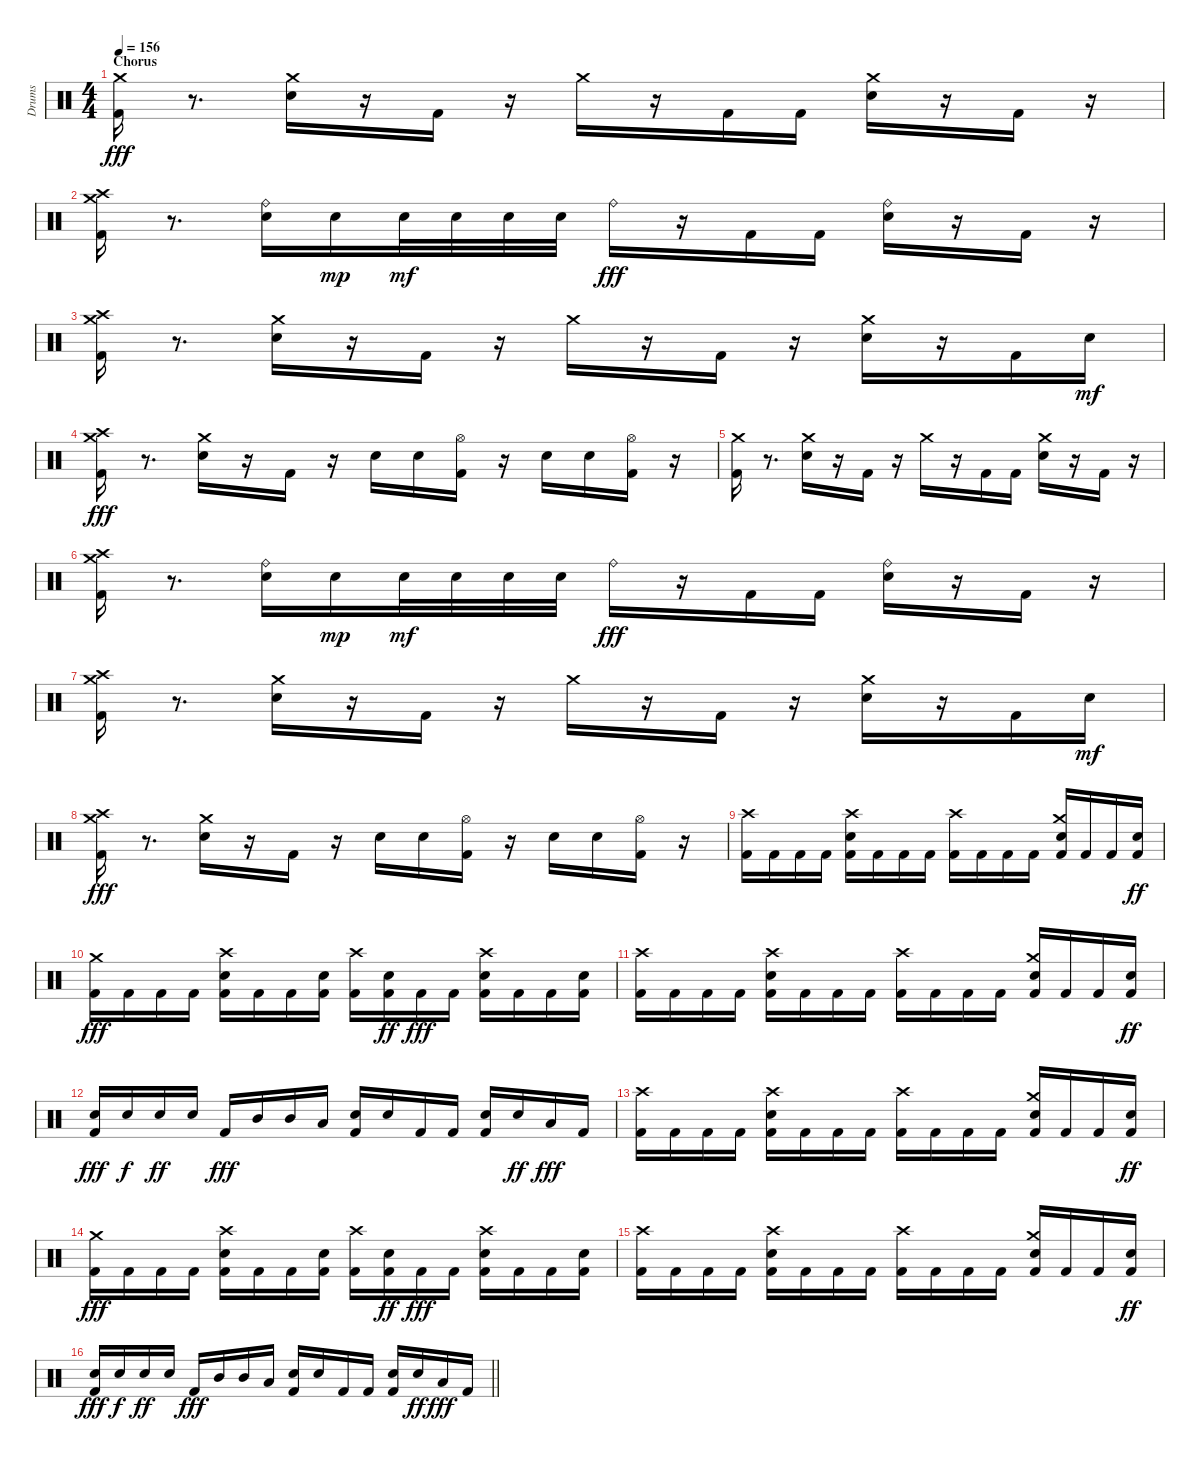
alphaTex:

\track ("Drums" "Drums") {instrument percussion}
\staff {score}
\articulation defaults
\ts (4 4)
\section ("" "Chorus")
\tempo 156
\clef neutral
\ks c
("Kick (hit) 2" "Crash medium (hit)").16{dy fff} r.8{d} ("Snare (hit) 2" "Crash medium (hit)").16 r.16 "Kick (hit) 2".16 r.16 "Crash medium (hit)".16 r.16 "Kick (hit) 2".16 "Kick (hit) 2".16 ("Snare (hit) 2" "Crash medium (hit)").16 r.16 "Kick (hit) 2".16 r.16 |
("Kick (hit) 2" "Crash high (hit)" "Crash medium (hit)").16 r.8{d} ("Snare (hit) 2" "Ride (bell)").16 "Snare (hit) 2".16{dy mp} "Snare (hit) 2".32{dy mf} "Snare (hit) 2".32 "Snare (hit) 2".32 "Snare (hit) 2".32 "Ride (bell)".16{dy fff} r.16 "Kick (hit) 2".16 "Kick (hit) 2".16 ("Snare (hit) 2" "Ride (bell)").16 r.16 "Kick (hit) 2".16 r.16 |
("Kick (hit) 2" "Crash high (hit)" "Crash medium (hit)").16 r.8{d} ("Snare (hit) 2" "Crash medium (hit)").16 r.16 "Kick (hit) 2".16 r.16 "Crash medium (hit)".16 r.16 "Kick (hit) 2".16 r.16 ("Snare (hit) 2" "Crash medium (hit)").16 r.16 "Kick (hit) 2".16 "Snare (hit) 2".16{dy mf} |
("Kick (hit) 2" "Crash high (hit)" "Crash medium (hit)").16{dy fff} r.8{d} ("Snare (hit) 2" "Crash medium (hit)").16 r.16 "Kick (hit) 2".16 r.16 "Snare (hit) 2".16 "Snare (hit) 2".16 ("Kick (hit) 2" "Hi-Hat (open)").16 r.16 "Snare (hit) 2".16 "Snare (hit) 2".16 ("Kick (hit) 2" "Hi-Hat (open)").16 r.16 |
("Kick (hit) 2" "Crash medium (hit)").16 r.8{d} ("Snare (hit) 2" "Crash medium (hit)").16 r.16 "Kick (hit) 2".16 r.16 "Crash medium (hit)".16 r.16 "Kick (hit) 2".16 "Kick (hit) 2".16 ("Snare (hit) 2" "Crash medium (hit)").16 r.16 "Kick (hit) 2".16 r.16 |
("Kick (hit) 2" "Crash high (hit)" "Crash medium (hit)").16 r.8{d} ("Snare (hit) 2" "Ride (bell)").16 "Snare (hit) 2".16{dy mp} "Snare (hit) 2".32{dy mf} "Snare (hit) 2".32 "Snare (hit) 2".32 "Snare (hit) 2".32 "Ride (bell)".16{dy fff} r.16 "Kick (hit) 2".16 "Kick (hit) 2".16 ("Snare (hit) 2" "Ride (bell)").16 r.16 "Kick (hit) 2".16 r.16 |
("Kick (hit) 2" "Crash high (hit)" "Crash medium (hit)").16 r.8{d} ("Snare (hit) 2" "Crash medium (hit)").16 r.16 "Kick (hit) 2".16 r.16 "Crash medium (hit)".16 r.16 "Kick (hit) 2".16 r.16 ("Snare (hit) 2" "Crash medium (hit)").16 r.16 "Kick (hit) 2".16 "Snare (hit) 2".16{dy mf} |
("Kick (hit) 2" "Crash high (hit)" "Crash medium (hit)").16{dy fff} r.8{d} ("Snare (hit) 2" "Crash medium (hit)").16 r.16 "Kick (hit) 2".16 r.16 "Snare (hit) 2".16 "Snare (hit) 2".16 ("Kick (hit) 2" "Hi-Hat (open)").16 r.16 "Snare (hit) 2".16 "Snare (hit) 2".16 ("Kick (hit) 2" "Hi-Hat (open)").16 r.16 |
("Kick (hit) 2" "Crash high (hit)").16 "Kick (hit) 2".16 "Kick (hit) 2".16 "Kick (hit) 2".16 ("Kick (hit) 2" "Snare (hit) 2" "Crash high (hit)").16 "Kick (hit) 2".16 "Kick (hit) 2".16 "Kick (hit) 2".16 ("Kick (hit) 2" "Crash high (hit)").16 "Kick (hit) 2".16 "Kick (hit) 2".16 "Kick (hit) 2".16 ("Kick (hit) 2" "Snare (hit) 2" "Crash medium (hit)").16 "Kick (hit) 2".16 "Kick (hit) 2".16 ("Kick (hit) 2" "Snare (hit) 2").16{dy ff} |
("Kick (hit) 2" "Crash medium (hit)").16{dy fff} "Kick (hit) 2".16 "Kick (hit) 2".16 "Kick (hit) 2".16 ("Kick (hit) 2" "Snare (hit) 2" "Crash high (hit)").16 "Kick (hit) 2".16 "Kick (hit) 2".16 ("Kick (hit) 2" "Snare (hit) 2").16 ("Kick (hit) 2" "Crash high (hit)").16 ("Kick (hit) 2" "Snare (hit) 2").16{dy ff} "Kick (hit) 2".16{dy fff} "Kick (hit) 2".16 ("Kick (hit) 2" "Snare (hit) 2" "Crash high (hit)").16 "Kick (hit) 2".16 "Kick (hit) 2".16 ("Kick (hit) 2" "Snare (hit) 2").16 |
("Kick (hit) 2" "Crash high (hit)").16 "Kick (hit) 2".16 "Kick (hit) 2".16 "Kick (hit) 2".16 ("Kick (hit) 2" "Snare (hit) 2" "Crash high (hit)").16 "Kick (hit) 2".16 "Kick (hit) 2".16 "Kick (hit) 2".16 ("Kick (hit) 2" "Crash high (hit)").16 "Kick (hit) 2".16 "Kick (hit) 2".16 "Kick (hit) 2".16 ("Kick (hit) 2" "Snare (hit) 2" "Crash medium (hit)").16 "Kick (hit) 2".16 "Kick (hit) 2".16 ("Kick (hit) 2" "Snare (hit) 2").16{dy ff} |
("Kick (hit) 2" "Snare (hit) 2").16{dy fff} "Snare (hit) 2".16{dy f} "Snare (hit) 2".16{dy ff} "Snare (hit) 2".16 "Kick (hit) 2".16{dy fff} "Mid Tom (hit)".16 "Mid Tom (hit)".16 "Low Tom (hit)".16 ("Kick (hit) 2" "Snare (hit) 2").16 "Snare (hit) 2".16 "Kick (hit) 2".16 "Kick (hit) 2".16 ("Kick (hit) 2" "Snare (hit) 2").16 "Snare (hit) 2".16{dy ff} "Low Tom (hit)".16{dy fff} "Kick (hit) 2".16 |
("Kick (hit) 2" "Crash high (hit)").16 "Kick (hit) 2".16 "Kick (hit) 2".16 "Kick (hit) 2".16 ("Kick (hit) 2" "Snare (hit) 2" "Crash high (hit)").16 "Kick (hit) 2".16 "Kick (hit) 2".16 "Kick (hit) 2".16 ("Kick (hit) 2" "Crash high (hit)").16 "Kick (hit) 2".16 "Kick (hit) 2".16 "Kick (hit) 2".16 ("Kick (hit) 2" "Snare (hit) 2" "Crash medium (hit)").16 "Kick (hit) 2".16 "Kick (hit) 2".16 ("Kick (hit) 2" "Snare (hit) 2").16{dy ff} |
("Kick (hit) 2" "Crash medium (hit)").16{dy fff} "Kick (hit) 2".16 "Kick (hit) 2".16 "Kick (hit) 2".16 ("Kick (hit) 2" "Snare (hit) 2" "Crash high (hit)").16 "Kick (hit) 2".16 "Kick (hit) 2".16 ("Kick (hit) 2" "Snare (hit) 2").16 ("Kick (hit) 2" "Crash high (hit)").16 ("Kick (hit) 2" "Snare (hit) 2").16{dy ff} "Kick (hit) 2".16{dy fff} "Kick (hit) 2".16 ("Kick (hit) 2" "Snare (hit) 2" "Crash high (hit)").16 "Kick (hit) 2".16 "Kick (hit) 2".16 ("Kick (hit) 2" "Snare (hit) 2").16 |
("Kick (hit) 2" "Crash high (hit)").16 "Kick (hit) 2".16 "Kick (hit) 2".16 "Kick (hit) 2".16 ("Kick (hit) 2" "Snare (hit) 2" "Crash high (hit)").16 "Kick (hit) 2".16 "Kick (hit) 2".16 "Kick (hit) 2".16 ("Kick (hit) 2" "Crash high (hit)").16 "Kick (hit) 2".16 "Kick (hit) 2".16 "Kick (hit) 2".16 ("Kick (hit) 2" "Snare (hit) 2" "Crash medium (hit)").16 "Kick (hit) 2".16 "Kick (hit) 2".16 ("Kick (hit) 2" "Snare (hit) 2").16{dy ff} |
\barLineRight lightlight
("Kick (hit) 2" "Snare (hit) 2").16{dy fff} "Snare (hit) 2".16{dy f} "Snare (hit) 2".16{dy ff} "Snare (hit) 2".16 "Kick (hit) 2".16{dy fff} "Mid Tom (hit)".16 "Mid Tom (hit)".16 "Low Tom (hit)".16 ("Kick (hit) 2" "Snare (hit) 2").16 "Snare (hit) 2".16 "Kick (hit) 2".16 "Kick (hit) 2".16 ("Kick (hit) 2" "Snare (hit) 2").16 "Snare (hit) 2".16{dy ff} "Low Tom (hit)".16{dy fff} "Kick (hit) 2".16
